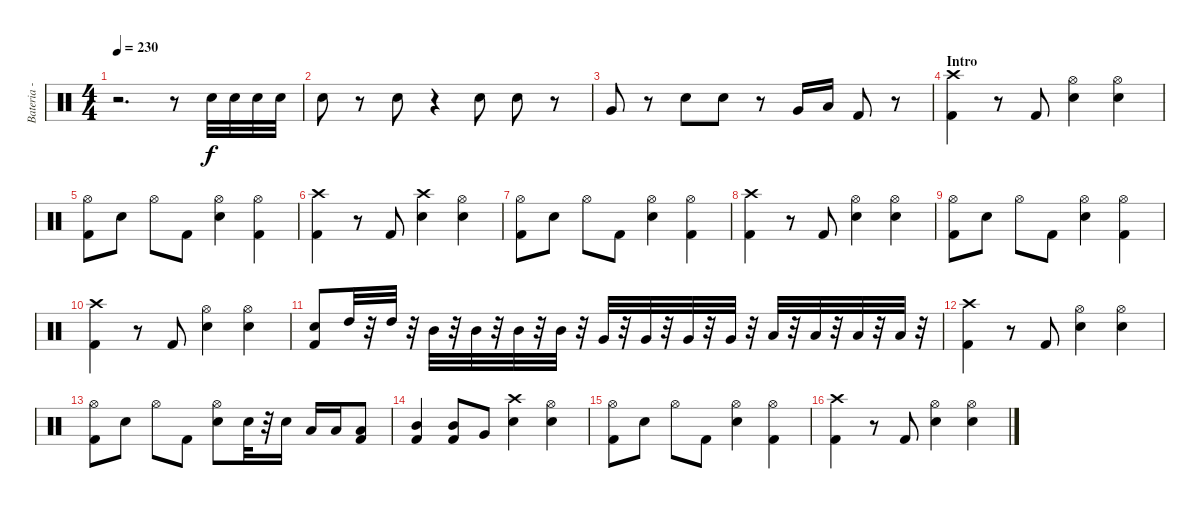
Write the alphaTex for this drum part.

\track ("Bateria - Larzon" "Bateria - ") {instrument percussion}
\staff {score}
\articulation defaults
\ts (4 4)
\tempo 230
\clef neutral
\ks c
r.2{d dy f} r.8 "Snare (hit) 2".32 "Snare (hit) 2".32 "Snare (hit) 2".32 "Snare (hit) 2".32 |
"Snare (hit) 2".8 r.8 "Snare (hit) 2".8 r.4 "Snare (hit) 2".8 "Snare (hit) 2".8 r.8 |
"Very Low Tom (hit)".8 r.8 "Snare (hit) 2".8 "Snare (hit) 2".8 r.8 "Very Low Tom (hit)".16 "Low Floor Tom (hit)".16 "Kick (hit) 2".8 r.8 |
\section ("" "Intro")
("Kick (hit) 2" "Crash high (hit)").4 r.8 "Kick (hit) 2".8 ("Hi-Hat (open)" "Electric Snare (hit)").4 ("Hi-Hat (open)" "Electric Snare (hit)").4 |
("Hi-Hat (open)" "Kick (hit) 2").8 "Electric Snare (hit)".8 "Hi-Hat (open)".8 "Kick (hit) 2".8 ("Hi-Hat (open)" "Electric Snare (hit)").4 ("Hi-Hat (open)" "Kick (hit) 2").4 |
("Kick (hit) 2" "Crash high (hit)").4 r.8 "Kick (hit) 2".8 ("Electric Snare (hit)" "Crash high (hit)").4 ("Electric Snare (hit)" "Hi-Hat (open)").4 |
("Hi-Hat (open)" "Kick (hit) 2").8 "Electric Snare (hit)".8 "Hi-Hat (open)".8 "Kick (hit) 2".8 ("Hi-Hat (open)" "Electric Snare (hit)").4 ("Hi-Hat (open)" "Kick (hit) 2").4 |
("Kick (hit) 2" "Crash high (hit)").4 r.8 "Kick (hit) 2".8 ("Hi-Hat (open)" "Electric Snare (hit)").4 ("Hi-Hat (open)" "Electric Snare (hit)").4 |
("Hi-Hat (open)" "Kick (hit) 2").8 "Electric Snare (hit)".8 "Hi-Hat (open)".8 "Kick (hit) 2".8 ("Hi-Hat (open)" "Electric Snare (hit)").4 ("Hi-Hat (open)" "Kick (hit) 2").4 |
("Kick (hit) 2" "Crash high (hit)").4 r.8 "Kick (hit) 2".8 ("Hi-Hat (open)" "Electric Snare (hit)").4 ("Hi-Hat (open)" "Electric Snare (hit)").4 |
("Kick (hit) 2" "Snare (hit) 2").8 "High Tom (hit)".32 r.32 "High Tom (hit)".32 r.32 "Mid Tom (hit)".32 r.32 "Mid Tom (hit)".32 r.32 "Mid Tom (hit)".32 r.32 "Mid Tom (hit)".32 r.32 "Very Low Tom (hit)".32 r.32 "Very Low Tom (hit)".32 r.32 "Very Low Tom (hit)".32 r.32 "Very Low Tom (hit)".32 r.32 "Low Floor Tom (hit)".32 r.32 "Low Floor Tom (hit)".32 r.32 "Low Floor Tom (hit)".32 r.32 "Low Floor Tom (hit)".32 r.32 |
("Kick (hit) 2" "Crash high (hit)").4 r.8 "Kick (hit) 2".8 ("Hi-Hat (open)" "Electric Snare (hit)").4 ("Hi-Hat (open)" "Electric Snare (hit)").4 |
("Hi-Hat (open)" "Kick (hit) 2").8 "Electric Snare (hit)".8 "Hi-Hat (open)".8 "Kick (hit) 2".8 ("Electric Snare (hit)" "Hi-Hat (open)").8 "Electric Snare (hit)".32 r.32 "Electric Snare (hit)".16 "Low Tom (hit)".16 "Low Tom (hit)".16 ("Kick (hit) 2" "Low Floor Tom (hit)").8 |
("Kick (hit) 2" "Mid Tom (hit)").4 ("Mid Tom (hit)" "Kick (hit) 2").8 "Very Low Tom (hit)".8 ("Electric Snare (hit)" "Crash high (hit)").4 ("Electric Snare (hit)" "Hi-Hat (open)").4 |
("Hi-Hat (open)" "Kick (hit) 2").8 "Electric Snare (hit)".8 "Hi-Hat (open)".8 "Kick (hit) 2".8 ("Hi-Hat (open)" "Electric Snare (hit)").4 ("Hi-Hat (open)" "Kick (hit) 2").4 |
("Kick (hit) 2" "Crash high (hit)").4 r.8 "Kick (hit) 2".8 ("Hi-Hat (open)" "Electric Snare (hit)").4 ("Hi-Hat (open)" "Electric Snare (hit)").4
